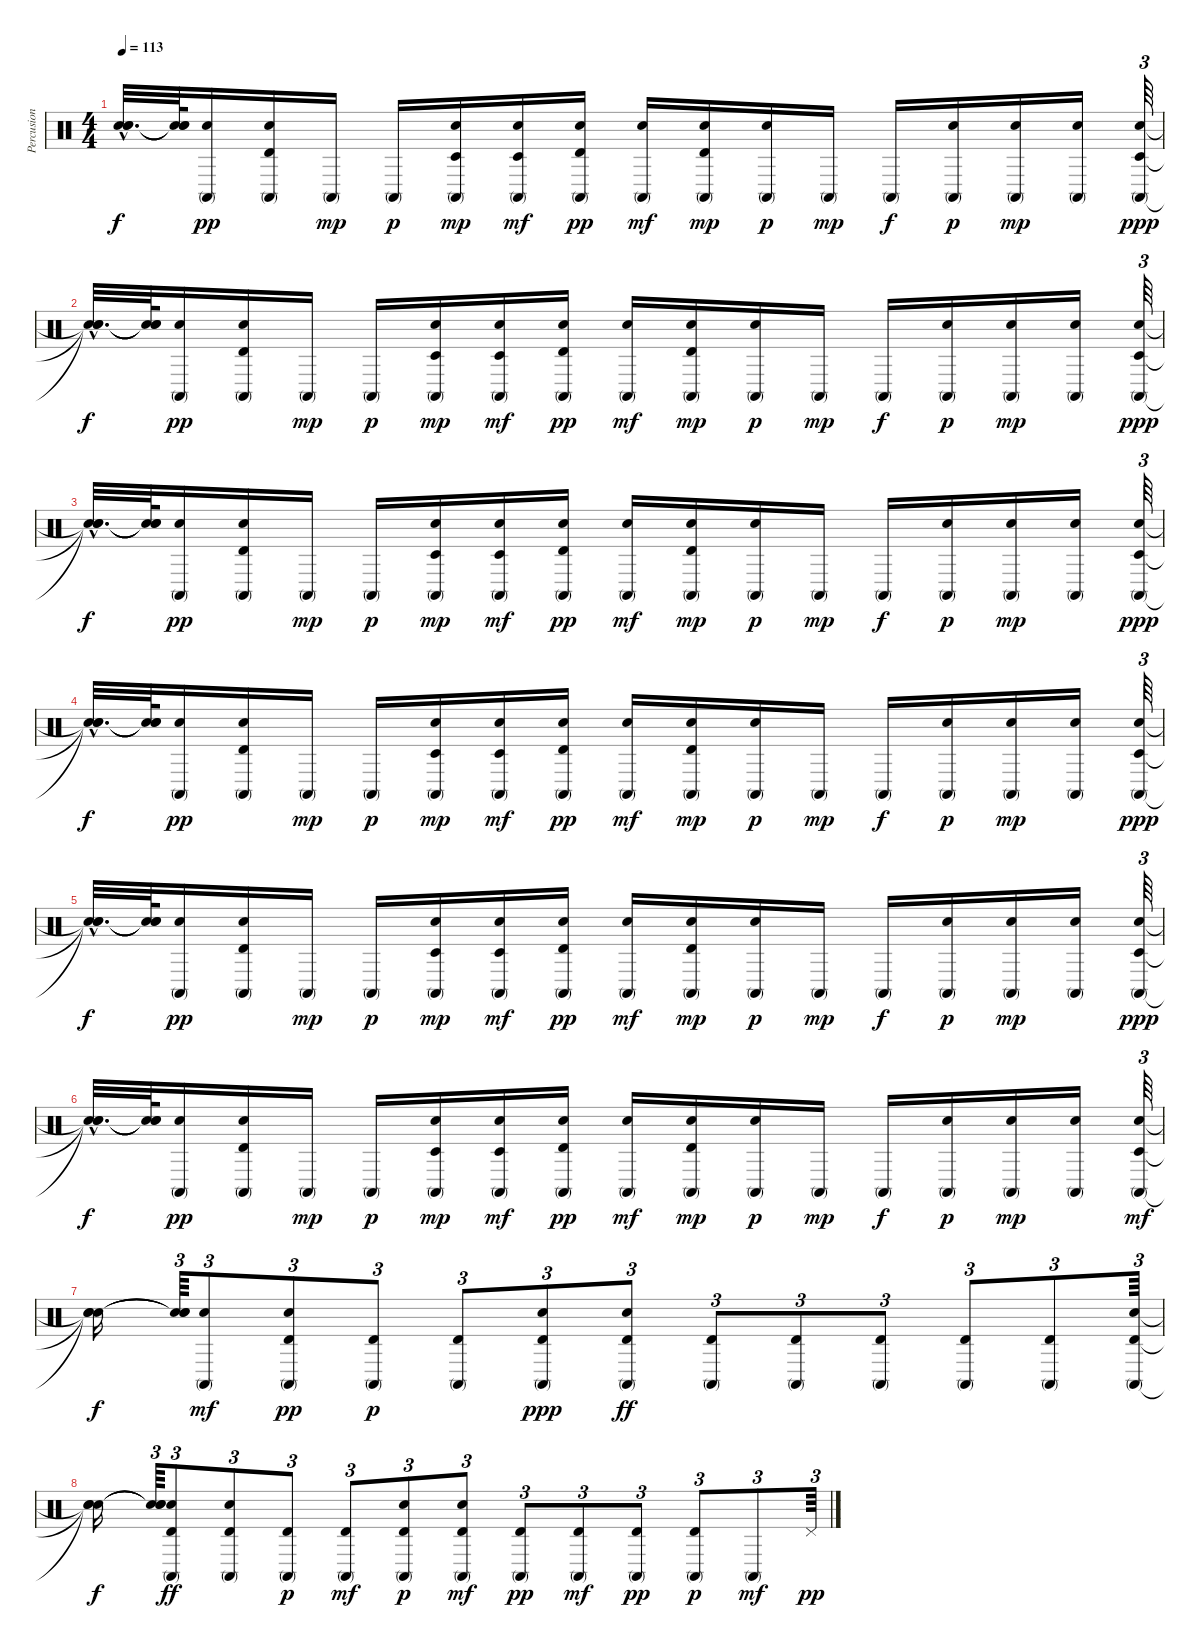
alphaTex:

\track ("Percusion" "Percusion") {instrument percussion}
\staff {score}
\articulation defaults
\ts (4 4)
\tempo 113
\clef neutral
\ks c
("Snare (hit)"{hac t} "Snare (hit)"{hac t} "Snare (hit)"{hac t}).32{d dy f} ("Snare (hit)"{t} "Snare (hit)"{t} "Snare (hit)"{t}).64 ("Electric Snare (hit)" "Conga high (mute)").16{dy pp} ("Electric Snare (hit)" "Timbale high (hit)" "Conga high (mute)").16 "Conga high (mute)".16{dy mp} "Conga high (mute)".16{dy p} ("Electric Snare (hit)" "Timbale low (hit)" "Conga high (mute)").16{dy mp} ("Electric Snare (hit)" "Timbale low (hit)" "Conga high (mute)").16{dy mf} ("Electric Snare (hit)" "Timbale high (hit)" "Conga high (mute)").16{dy pp} ("Electric Snare (hit)" "Conga high (mute)").16{dy mf} ("Electric Snare (hit)" "Timbale high (hit)" "Conga high (mute)").16{dy mp} ("Electric Snare (hit)" "Conga high (mute)").16{dy p} "Conga high (mute)".16{dy mp} "Conga high (mute)".16{dy f} ("Electric Snare (hit)" "Conga high (mute)").16{dy p} ("Electric Snare (hit)" "Conga high (mute)").16{dy mp} ("Electric Snare (hit)" "Conga high (mute)").16 ("Electric Snare (hit)" "Timbale low (hit)" "Conga high (mute)").64{tu (3 2) dy ppp} |
("Snare (hit)"{hac t} "Snare (hit)"{hac t} "Snare (hit)"{hac t}).32{d dy f} ("Snare (hit)"{t} "Snare (hit)"{t} "Snare (hit)"{t}).64 ("Electric Snare (hit)" "Conga high (mute)").16{dy pp} ("Electric Snare (hit)" "Timbale high (hit)" "Conga high (mute)").16 "Conga high (mute)".16{dy mp} "Conga high (mute)".16{dy p} ("Electric Snare (hit)" "Timbale low (hit)" "Conga high (mute)").16{dy mp} ("Electric Snare (hit)" "Timbale low (hit)" "Conga high (mute)").16{dy mf} ("Electric Snare (hit)" "Timbale high (hit)" "Conga high (mute)").16{dy pp} ("Electric Snare (hit)" "Conga high (mute)").16{dy mf} ("Electric Snare (hit)" "Timbale high (hit)" "Conga high (mute)").16{dy mp} ("Electric Snare (hit)" "Conga high (mute)").16{dy p} "Conga high (mute)".16{dy mp} "Conga high (mute)".16{dy f} ("Electric Snare (hit)" "Conga high (mute)").16{dy p} ("Electric Snare (hit)" "Conga high (mute)").16{dy mp} ("Electric Snare (hit)" "Conga high (mute)").16 ("Electric Snare (hit)" "Timbale low (hit)" "Conga high (mute)").64{tu (3 2) dy ppp} |
("Snare (hit)"{hac t} "Snare (hit)"{hac t} "Snare (hit)"{hac t}).32{d dy f} ("Snare (hit)"{t} "Snare (hit)"{t} "Snare (hit)"{t}).64 ("Electric Snare (hit)" "Conga high (mute)").16{dy pp} ("Electric Snare (hit)" "Timbale high (hit)" "Conga high (mute)").16 "Conga high (mute)".16{dy mp} "Conga high (mute)".16{dy p} ("Electric Snare (hit)" "Timbale low (hit)" "Conga high (mute)").16{dy mp} ("Electric Snare (hit)" "Timbale low (hit)" "Conga high (mute)").16{dy mf} ("Electric Snare (hit)" "Timbale high (hit)" "Conga high (mute)").16{dy pp} ("Electric Snare (hit)" "Conga high (mute)").16{dy mf} ("Electric Snare (hit)" "Timbale high (hit)" "Conga high (mute)").16{dy mp} ("Electric Snare (hit)" "Conga high (mute)").16{dy p} "Conga high (mute)".16{dy mp} "Conga high (mute)".16{dy f} ("Electric Snare (hit)" "Conga high (mute)").16{dy p} ("Electric Snare (hit)" "Conga high (mute)").16{dy mp} ("Electric Snare (hit)" "Conga high (mute)").16 ("Electric Snare (hit)" "Timbale low (hit)" "Conga high (mute)").64{tu (3 2) dy ppp} |
("Snare (hit)"{hac t} "Snare (hit)"{hac t} "Snare (hit)"{hac t}).32{d dy f} ("Snare (hit)"{t} "Snare (hit)"{t} "Snare (hit)"{t}).64 ("Electric Snare (hit)" "Conga high (mute)").16{dy pp} ("Electric Snare (hit)" "Timbale high (hit)" "Conga high (mute)").16 "Conga high (mute)".16{dy mp} "Conga high (mute)".16{dy p} ("Electric Snare (hit)" "Timbale low (hit)" "Conga high (mute)").16{dy mp} ("Electric Snare (hit)" "Timbale low (hit)" "Conga high (mute)").16{dy mf} ("Electric Snare (hit)" "Timbale high (hit)" "Conga high (mute)").16{dy pp} ("Electric Snare (hit)" "Conga high (mute)").16{dy mf} ("Electric Snare (hit)" "Timbale high (hit)" "Conga high (mute)").16{dy mp} ("Electric Snare (hit)" "Conga high (mute)").16{dy p} "Conga high (mute)".16{dy mp} "Conga high (mute)".16{dy f} ("Electric Snare (hit)" "Conga high (mute)").16{dy p} ("Electric Snare (hit)" "Conga high (mute)").16{dy mp} ("Electric Snare (hit)" "Conga high (mute)").16 ("Electric Snare (hit)" "Timbale low (hit)" "Conga high (mute)").64{tu (3 2) dy ppp} |
("Snare (hit)"{hac t} "Snare (hit)"{hac t} "Snare (hit)"{hac t}).32{d dy f} ("Snare (hit)"{t} "Snare (hit)"{t} "Snare (hit)"{t}).64 ("Electric Snare (hit)" "Conga high (mute)").16{dy pp} ("Electric Snare (hit)" "Timbale high (hit)" "Conga high (mute)").16 "Conga high (mute)".16{dy mp} "Conga high (mute)".16{dy p} ("Electric Snare (hit)" "Timbale low (hit)" "Conga high (mute)").16{dy mp} ("Electric Snare (hit)" "Timbale low (hit)" "Conga high (mute)").16{dy mf} ("Electric Snare (hit)" "Timbale high (hit)" "Conga high (mute)").16{dy pp} ("Electric Snare (hit)" "Conga high (mute)").16{dy mf} ("Electric Snare (hit)" "Timbale high (hit)" "Conga high (mute)").16{dy mp} ("Electric Snare (hit)" "Conga high (mute)").16{dy p} "Conga high (mute)".16{dy mp} "Conga high (mute)".16{dy f} ("Electric Snare (hit)" "Conga high (mute)").16{dy p} ("Electric Snare (hit)" "Conga high (mute)").16{dy mp} ("Electric Snare (hit)" "Conga high (mute)").16 ("Electric Snare (hit)" "Timbale low (hit)" "Conga high (mute)").64{tu (3 2) dy ppp} |
("Snare (hit)"{hac t} "Snare (hit)"{hac t} "Snare (hit)"{hac t}).32{d dy f} ("Snare (hit)"{t} "Snare (hit)"{t} "Snare (hit)"{t}).64 ("Electric Snare (hit)" "Conga high (mute)").16{dy pp} ("Electric Snare (hit)" "Timbale high (hit)" "Conga high (mute)").16 "Conga high (mute)".16{dy mp} "Conga high (mute)".16{dy p} ("Electric Snare (hit)" "Timbale low (hit)" "Conga high (mute)").16{dy mp} ("Electric Snare (hit)" "Timbale low (hit)" "Conga high (mute)").16{dy mf} ("Electric Snare (hit)" "Timbale high (hit)" "Conga high (mute)").16{dy pp} ("Electric Snare (hit)" "Conga high (mute)").16{dy mf} ("Electric Snare (hit)" "Timbale high (hit)" "Conga high (mute)").16{dy mp} ("Electric Snare (hit)" "Conga high (mute)").16{dy p} "Conga high (mute)".16{dy mp} "Conga high (mute)".16{dy f} ("Electric Snare (hit)" "Conga high (mute)").16{dy p} ("Electric Snare (hit)" "Conga high (mute)").16{dy mp} ("Electric Snare (hit)" "Conga high (mute)").16 ("Electric Snare (hit)" "Timbale low (hit)" "Conga high (mute)").64{tu (3 2) dy mf} |
("Snare (hit)"{t} "Snare (hit)"{t} "Snare (hit)"{t}).16{dy f} ("Snare (hit)"{t} "Snare (hit)"{t} "Snare (hit)"{t}).64{tu (3 2)} ("Electric Snare (hit)" "Conga high (mute)").8{tu (3 2) dy mf} ("Electric Snare (hit)" "Timbale high (hit)" "Conga high (mute)").8{tu (3 2) dy pp} ("Timbale high (hit)" "Conga high (mute)").8{tu (3 2) dy p} ("Timbale high (hit)" "Conga high (mute)").8{tu (3 2)} ("Electric Snare (hit)" "Timbale high (hit)" "Conga high (mute)").8{tu (3 2) dy ppp} ("Electric Snare (hit)" "Timbale high (hit)" "Conga high (mute)").8{tu (3 2) dy ff} ("Timbale high (hit)" "Conga high (mute)").8{tu (3 2)} ("Timbale high (hit)" "Conga high (mute)").8{tu (3 2)} ("Timbale high (hit)" "Conga high (mute)").8{tu (3 2)} ("Timbale high (hit)" "Conga high (mute)").8{tu (3 2)} ("Timbale high (hit)" "Conga high (mute)").8{tu (3 2)} ("Electric Snare (hit)" "Timbale high (hit)" "Conga high (mute)").64{tu (3 2)} |
("Snare (hit)"{t} "Snare (hit)"{t} "Snare (hit)"{t}).16{dy f} ("Snare (hit)"{t} "Snare (hit)"{t} "Snare (hit)"{t}).64{tu (3 2)} ("Electric Snare (hit)" "Timbale high (hit)" "Conga high (mute)").8{tu (3 2) dy ff} ("Electric Snare (hit)" "Timbale high (hit)" "Conga high (mute)").8{tu (3 2)} ("Timbale high (hit)" "Conga high (mute)").8{tu (3 2) dy p} ("Timbale high (hit)" "Conga high (mute)").8{tu (3 2) dy mf} ("Electric Snare (hit)" "Timbale high (hit)" "Conga high (mute)").8{tu (3 2) dy p} ("Electric Snare (hit)" "Timbale high (hit)" "Conga high (mute)").8{tu (3 2) dy mf} ("Timbale high (hit)" "Conga high (mute)").8{tu (3 2) dy pp} ("Timbale high (hit)" "Conga high (mute)").8{tu (3 2) dy mf} ("Timbale high (hit)" "Conga high (mute)").8{tu (3 2) dy pp} ("Timbale high (hit)" "Conga high (mute)").8{tu (3 2) dy p} "Conga high (mute)".8{tu (3 2) dy mf} "Pedal Hi-Hat (hit)".64{tu (3 2) dy pp}
